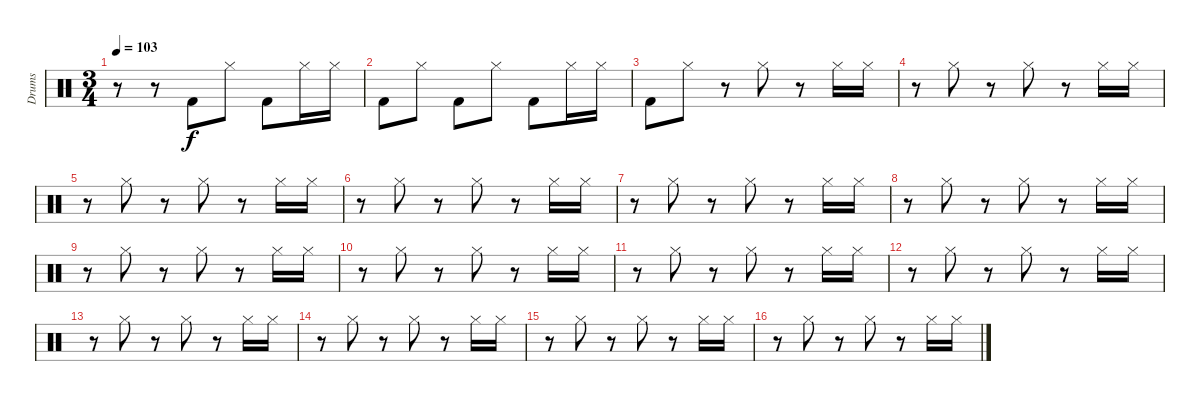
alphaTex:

\track ("Drums" "Drums") {instrument percussion}
\staff {score}
\articulation defaults
\ts (3 4)
\tempo 103
\clef neutral
\ks c
r.8{dy f} r.8 "Kick (hit) 2".8 "Hi-Hat (closed)".8 "Kick (hit) 2".8 "Hi-Hat (closed)".16 "Hi-Hat (closed)".16 |
"Kick (hit) 2".8 "Hi-Hat (closed)".8 "Kick (hit) 2".8 "Hi-Hat (closed)".8 "Kick (hit) 2".8 "Hi-Hat (closed)".16 "Hi-Hat (closed)".16 |
"Kick (hit) 2".8 "Hi-Hat (closed)".8 r.8 "Hi-Hat (closed)".8 r.8 "Hi-Hat (closed)".16 "Hi-Hat (closed)".16 |
r.8 "Hi-Hat (closed)".8 r.8 "Hi-Hat (closed)".8 r.8 "Hi-Hat (closed)".16 "Hi-Hat (closed)".16 |
r.8 "Hi-Hat (closed)".8 r.8 "Hi-Hat (closed)".8 r.8 "Hi-Hat (closed)".16 "Hi-Hat (closed)".16 |
r.8 "Hi-Hat (closed)".8 r.8 "Hi-Hat (closed)".8 r.8 "Hi-Hat (closed)".16 "Hi-Hat (closed)".16 |
r.8 "Hi-Hat (closed)".8 r.8 "Hi-Hat (closed)".8 r.8 "Hi-Hat (closed)".16 "Hi-Hat (closed)".16 |
r.8 "Hi-Hat (closed)".8 r.8 "Hi-Hat (closed)".8 r.8 "Hi-Hat (closed)".16 "Hi-Hat (closed)".16 |
r.8 "Hi-Hat (closed)".8 r.8 "Hi-Hat (closed)".8 r.8 "Hi-Hat (closed)".16 "Hi-Hat (closed)".16 |
r.8 "Hi-Hat (closed)".8 r.8 "Hi-Hat (closed)".8 r.8 "Hi-Hat (closed)".16 "Hi-Hat (closed)".16 |
r.8 "Hi-Hat (closed)".8 r.8 "Hi-Hat (closed)".8 r.8 "Hi-Hat (closed)".16 "Hi-Hat (closed)".16 |
r.8 "Hi-Hat (closed)".8 r.8 "Hi-Hat (closed)".8 r.8 "Hi-Hat (closed)".16 "Hi-Hat (closed)".16 |
r.8 "Hi-Hat (closed)".8 r.8 "Hi-Hat (closed)".8 r.8 "Hi-Hat (closed)".16 "Hi-Hat (closed)".16 |
r.8 "Hi-Hat (closed)".8 r.8 "Hi-Hat (closed)".8 r.8 "Hi-Hat (closed)".16 "Hi-Hat (closed)".16 |
r.8 "Hi-Hat (closed)".8 r.8 "Hi-Hat (closed)".8 r.8 "Hi-Hat (closed)".16 "Hi-Hat (closed)".16 |
r.8 "Hi-Hat (closed)".8 r.8 "Hi-Hat (closed)".8 r.8 "Hi-Hat (closed)".16 "Hi-Hat (closed)".16
